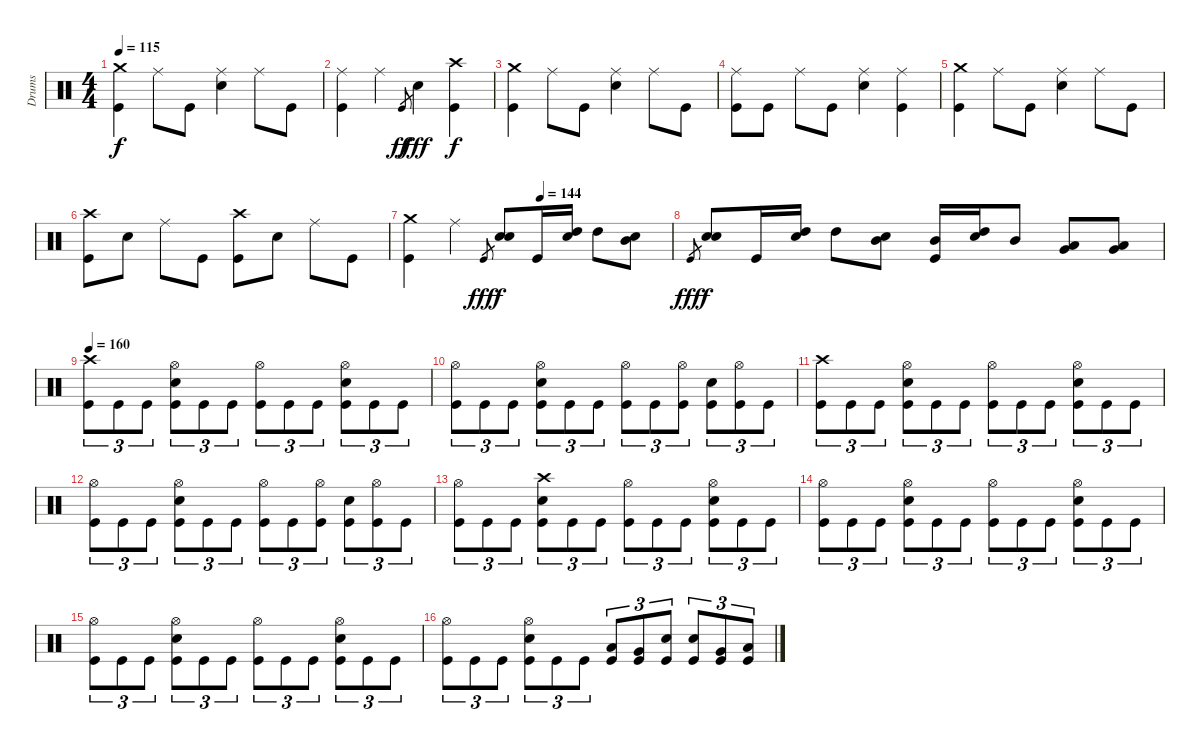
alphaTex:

\track ("Drums" "Drums") {instrument percussion}
\staff {score}
\articulation defaults
\ts (4 4)
\tempo 115
\clef neutral
\ks c
("Crash medium (hit)" "Kick (hit)").4{dy f} "Ride (middle)".8 "Kick (hit)".8 ("Ride (middle)" "Snare (hit) 2").4 "Ride (middle)".8 "Kick (hit)".8 |
("Ride (middle)" "Kick (hit)").4 "Ride (middle)".4 "Kick (hit)".8{gr dy ff} "Snare (hit) 2".4{dy fff} ("Crash high (hit)" "Kick (hit)").4{dy f} |
("Crash medium (hit)" "Kick (hit)").4 "Ride (middle)".8 "Kick (hit)".8 ("Ride (middle)" "Snare (hit) 2").4 "Ride (middle)".8 "Kick (hit)".8 |
("Ride (middle)" "Kick (hit)").8 "Kick (hit)".8 "Ride (middle)".8 "Kick (hit)".8 ("Ride (middle)" "Snare (hit) 2").4 ("Ride (middle)" "Kick (hit)").4 |
("Crash medium (hit)" "Kick (hit)").4 "Ride (middle)".8 "Kick (hit)".8 ("Ride (middle)" "Snare (hit) 2").4 "Ride (middle)".8 "Kick (hit)".8 |
("Crash high (hit)" "Kick (hit)").8 "Snare (hit) 2".8 "Ride (middle)".8 "Kick (hit)".8 ("Crash high (hit)" "Kick (hit)").8 "Snare (hit) 2".8 "Ride (middle)".8 "Kick (hit)".8 |
\tempo (144 0.5)
("Crash medium (hit)" "Kick (hit)").4 "Ride (middle)".4 "Kick (hit)".8{gr dy fff} ("Snare (hit) 2" "Snare (hit) 2").8{dy f} "Kick (hit)".16 ("High Tom (hit)" "Snare (hit) 2").16 "High Tom (hit)".8 ("Mid Tom (hit)" "Snare (hit) 2").8 |
"Kick (hit)".8{gr dy fff} ("Snare (hit) 2" "Snare (hit) 2").8{dy f} "Kick (hit)".16 ("High Tom (hit)" "Snare (hit) 2").16 "High Tom (hit)".8 ("Mid Tom (hit)" "Snare (hit) 2").8 ("Mid Tom (hit)" "Kick (hit)").16 ("High Tom (hit)" "Snare (hit) 2").16 "Mid Tom (hit)".8 ("Very Low Tom (hit)" "Low Tom (hit)").8 ("Very Low Tom (hit)" "Low Tom (hit)").8 |
\tempo 160
("Crash high (hit)" "Kick (hit)").8{tu (3 2)} "Kick (hit)".8{tu (3 2)} "Kick (hit)".8{tu (3 2)} ("Hi-Hat (open)" "Snare (hit) 2" "Kick (hit)").8{tu (3 2)} "Kick (hit)".8{tu (3 2)} "Kick (hit)".8{tu (3 2)} ("Hi-Hat (open)" "Kick (hit)").8{tu (3 2)} "Kick (hit)".8{tu (3 2)} "Kick (hit)".8{tu (3 2)} ("Hi-Hat (open)" "Snare (hit) 2" "Kick (hit)").8{tu (3 2)} "Kick (hit)".8{tu (3 2)} "Kick (hit)".8{tu (3 2)} |
("Hi-Hat (open)" "Kick (hit)").8{tu (3 2)} "Kick (hit)".8{tu (3 2)} "Kick (hit)".8{tu (3 2)} ("Hi-Hat (open)" "Snare (hit) 2" "Kick (hit)").8{tu (3 2)} "Kick (hit)".8{tu (3 2)} "Kick (hit)".8{tu (3 2)} ("Hi-Hat (open)" "Kick (hit)").8{tu (3 2)} "Kick (hit)".8{tu (3 2)} ("Hi-Hat (open)" "Kick (hit)").8{tu (3 2)} ("Snare (hit) 2" "Kick (hit)").8{tu (3 2)} ("Hi-Hat (open)" "Kick (hit)").8{tu (3 2)} "Kick (hit)".8{tu (3 2)} |
("Crash high (hit)" "Kick (hit)").8{tu (3 2)} "Kick (hit)".8{tu (3 2)} "Kick (hit)".8{tu (3 2)} ("Hi-Hat (open)" "Snare (hit) 2" "Kick (hit)").8{tu (3 2)} "Kick (hit)".8{tu (3 2)} "Kick (hit)".8{tu (3 2)} ("Hi-Hat (open)" "Kick (hit)").8{tu (3 2)} "Kick (hit)".8{tu (3 2)} "Kick (hit)".8{tu (3 2)} ("Hi-Hat (open)" "Snare (hit) 2" "Kick (hit)").8{tu (3 2)} "Kick (hit)".8{tu (3 2)} "Kick (hit)".8{tu (3 2)} |
("Hi-Hat (open)" "Kick (hit)").8{tu (3 2)} "Kick (hit)".8{tu (3 2)} "Kick (hit)".8{tu (3 2)} ("Hi-Hat (open)" "Snare (hit) 2" "Kick (hit)").8{tu (3 2)} "Kick (hit)".8{tu (3 2)} "Kick (hit)".8{tu (3 2)} ("Hi-Hat (open)" "Kick (hit)").8{tu (3 2)} "Kick (hit)".8{tu (3 2)} ("Hi-Hat (open)" "Kick (hit)").8{tu (3 2)} ("Snare (hit) 2" "Kick (hit)").8{tu (3 2)} ("Hi-Hat (open)" "Kick (hit)").8{tu (3 2)} "Kick (hit)".8{tu (3 2)} |
("Hi-Hat (open)" "Kick (hit)").8{tu (3 2)} "Kick (hit)".8{tu (3 2)} "Kick (hit)".8{tu (3 2)} ("Crash high (hit)" "Snare (hit) 2" "Kick (hit)").8{tu (3 2)} "Kick (hit)".8{tu (3 2)} "Kick (hit)".8{tu (3 2)} ("Hi-Hat (open)" "Kick (hit)").8{tu (3 2)} "Kick (hit)".8{tu (3 2)} "Kick (hit)".8{tu (3 2)} ("Hi-Hat (open)" "Snare (hit) 2" "Kick (hit)").8{tu (3 2)} "Kick (hit)".8{tu (3 2)} "Kick (hit)".8{tu (3 2)} |
("Hi-Hat (open)" "Kick (hit)").8{tu (3 2)} "Kick (hit)".8{tu (3 2)} "Kick (hit)".8{tu (3 2)} ("Hi-Hat (open)" "Snare (hit) 2" "Kick (hit)").8{tu (3 2)} "Kick (hit)".8{tu (3 2)} "Kick (hit)".8{tu (3 2)} ("Hi-Hat (open)" "Kick (hit)").8{tu (3 2)} "Kick (hit)".8{tu (3 2)} "Kick (hit)".8{tu (3 2)} ("Hi-Hat (open)" "Snare (hit) 2" "Kick (hit)").8{tu (3 2)} "Kick (hit)".8{tu (3 2)} "Kick (hit)".8{tu (3 2)} |
("Hi-Hat (open)" "Kick (hit)").8{tu (3 2)} "Kick (hit)".8{tu (3 2)} "Kick (hit)".8{tu (3 2)} ("Hi-Hat (open)" "Snare (hit) 2" "Kick (hit)").8{tu (3 2)} "Kick (hit)".8{tu (3 2)} "Kick (hit)".8{tu (3 2)} ("Hi-Hat (open)" "Kick (hit)").8{tu (3 2)} "Kick (hit)".8{tu (3 2)} "Kick (hit)".8{tu (3 2)} ("Hi-Hat (open)" "Snare (hit) 2" "Kick (hit)").8{tu (3 2)} "Kick (hit)".8{tu (3 2)} "Kick (hit)".8{tu (3 2)} |
("Hi-Hat (open)" "Kick (hit)").8{tu (3 2)} "Kick (hit)".8{tu (3 2)} "Kick (hit)".8{tu (3 2)} ("Hi-Hat (open)" "Snare (hit) 2" "Kick (hit)").8{tu (3 2)} "Kick (hit)".8{tu (3 2)} "Kick (hit)".8{tu (3 2)} ("Low Tom (hit)" "Kick (hit)").8{tu (3 2)} ("Very Low Tom (hit)" "Kick (hit)").8{tu (3 2)} ("Snare (hit) 2" "Kick (hit)").8{tu (3 2)} ("Snare (hit) 2" "Kick (hit)").8{tu (3 2)} ("Very Low Tom (hit)" "Kick (hit)").8{tu (3 2)} ("Low Tom (hit)" "Kick (hit)").8{tu (3 2)}
